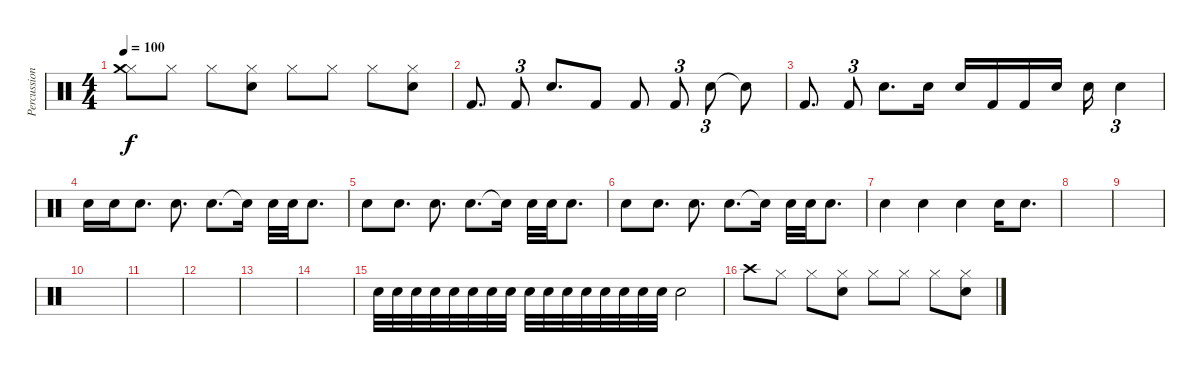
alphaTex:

\track ("Percussion" "Percussion") {instrument percussion}
\staff {score}
\articulation defaults
\ts (4 4)
\tempo 100
\clef neutral
\ks c
("Hi-Hat (closed)" "Crash medium (hit)").8{dy f} "Hi-Hat (closed)".8 "Hi-Hat (closed)".8 ("Hi-Hat (closed)" "Snare (hit) 2").8 "Hi-Hat (closed)".8 "Hi-Hat (closed)".8 "Hi-Hat (closed)".8 ("Hi-Hat (closed)" "Snare (hit) 2").8 |
"Kick (hit) 2".8{d} "Kick (hit) 2".8{tu (3 2)} "Snare (hit) 2".8{d} "Kick (hit) 2".8 "Kick (hit) 2".8 "Kick (hit) 2".8{tu (3 2)} "Snare (hit) 2".8{tu (3 2)} "Snare (hit) 2"{t}.8 |
"Kick (hit) 2".8{d} "Kick (hit) 2".8{tu (3 2)} "Snare (hit) 2".8{d} "Snare (hit) 2".16 "Snare (hit) 2".16 "Kick (hit) 2".16 "Kick (hit) 2".16 "Snare (hit) 2".16 "Snare (hit) 2".16 "Snare (hit) 2".4{tu (3 2)} |
"Snare (hit) 2".16 "Snare (hit) 2".16 "Snare (hit) 2".8{d} "Snare (hit) 2".8{d} "Snare (hit) 2".8{d} "Snare (hit) 2"{t}.16 "Snare (hit) 2".32 "Snare (hit) 2".32 "Snare (hit) 2".8{d} |
"Snare (hit) 2".8 "Snare (hit) 2".8{d} "Snare (hit) 2".8{d} "Snare (hit) 2".8{d} "Snare (hit) 2"{t}.16 "Snare (hit) 2".32 "Snare (hit) 2".32 "Snare (hit) 2".8{d} |
"Snare (hit) 2".8 "Snare (hit) 2".8{d} "Snare (hit) 2".8{d} "Snare (hit) 2".8{d} "Snare (hit) 2"{t}.16 "Snare (hit) 2".32 "Snare (hit) 2".32 "Snare (hit) 2".8{d} |
"Snare (hit) 2".4 "Snare (hit) 2".4 "Snare (hit) 2".4 "Snare (hit) 2".16 "Snare (hit) 2".8{d} |
|
|
|
|
|
|
|
"Snare (hit) 2".32 "Snare (hit) 2".32 "Snare (hit) 2".32 "Snare (hit) 2".32 "Snare (hit) 2".32 "Snare (hit) 2".32 "Snare (hit) 2".32 "Snare (hit) 2".32 "Snare (hit) 2".32 "Snare (hit) 2".32 "Snare (hit) 2".32 "Snare (hit) 2".32 "Snare (hit) 2".32 "Snare (hit) 2".32 "Snare (hit) 2".32 "Snare (hit) 2".32 "Snare (hit) 2".2 |
"Crash high (hit)".8 "Hi-Hat (closed)".8 "Hi-Hat (closed)".8 ("Hi-Hat (closed)" "Snare (hit) 2").8 "Hi-Hat (closed)".8 "Hi-Hat (closed)".8 "Hi-Hat (closed)".8 ("Hi-Hat (closed)" "Snare (hit) 2").8
